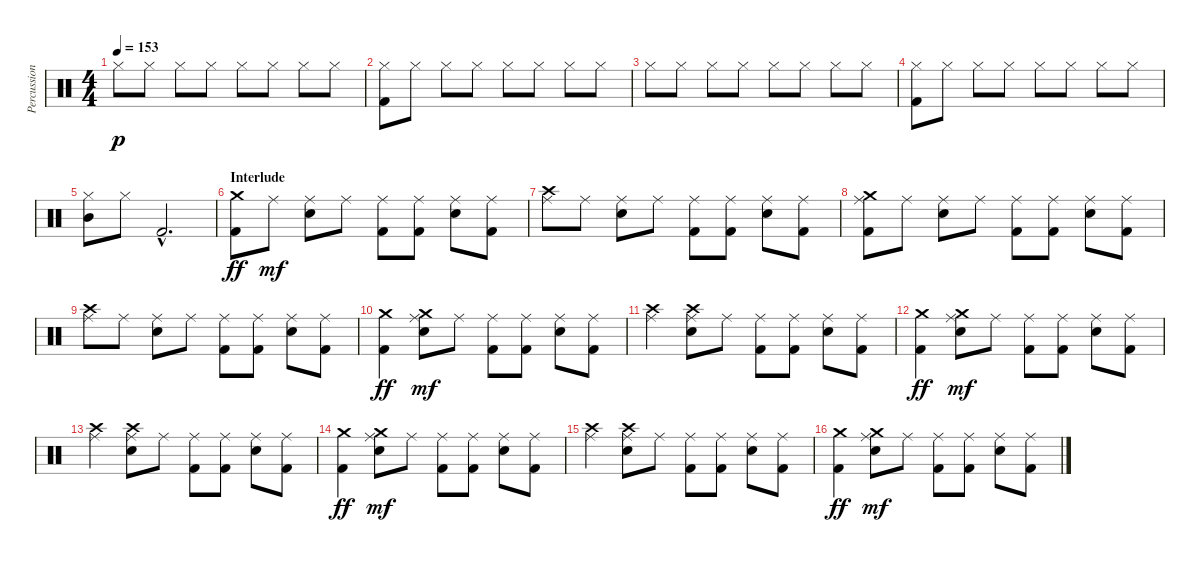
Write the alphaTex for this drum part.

\track ("Percussion" "Percussion") {instrument percussion}
\staff {score}
\articulation defaults
\ts (4 4)
\tempo 153
\clef neutral
\ks c "Hi-Hat (closed)".8{dy p} "Hi-Hat (closed)".8 "Hi-Hat (closed)".8 "Hi-Hat (closed)".8 "Hi-Hat (closed)".8 "Hi-Hat (closed)".8 "Hi-Hat (closed)".8 "Hi-Hat (closed)".8
|
("Hi-Hat (closed)" "Kick (hit) 2").8 "Hi-Hat (closed)".8 "Hi-Hat (closed)".8 "Hi-Hat (closed)".8 "Hi-Hat (closed)".8 "Hi-Hat (closed)".8 "Hi-Hat (closed)".8 "Hi-Hat (closed)".8 |
"Hi-Hat (closed)".8 "Hi-Hat (closed)".8 "Hi-Hat (closed)".8 "Hi-Hat (closed)".8 "Hi-Hat (closed)".8 "Hi-Hat (closed)".8 "Hi-Hat (closed)".8 "Hi-Hat (closed)".8 |
("Hi-Hat (closed)" "Kick (hit) 2").8 "Hi-Hat (closed)".8 "Hi-Hat (closed)".8 "Hi-Hat (closed)".8 "Hi-Hat (closed)".8 "Hi-Hat (closed)".8 "Hi-Hat (closed)".8 "Hi-Hat (closed)".8 |
("Mid Tom (hit)" "Hi-Hat (closed)").8 "Hi-Hat (closed)".8 "Kick (hit) 2"{hac}.2{d} |
\section ("" "Interlude")
("Crash medium (hit)" "Kick (hit) 2").8{dy ff} "Ride (middle)".8{dy mf} ("Ride (middle)" "Electric Snare (hit)").8 "Ride (middle)".8 ("Ride (middle)" "Kick (hit) 2").8 ("Ride (middle)" "Kick (hit) 2").8 ("Ride (middle)" "Electric Snare (hit)").8 ("Ride (middle)" "Kick (hit) 2").8 |
("Crash high (hit)" "Ride (middle)").8 "Ride (middle)".8 ("Ride (middle)" "Electric Snare (hit)").8 "Ride (middle)".8 ("Ride (middle)" "Kick (hit) 2").8 ("Ride (middle)" "Kick (hit) 2").8 ("Ride (middle)" "Electric Snare (hit)").8 ("Ride (middle)" "Kick (hit) 2").8 |
("Crash medium (hit)" "Ride (middle)" "Kick (hit) 2").8 "Ride (middle)".8 ("Ride (middle)" "Electric Snare (hit)").8 "Ride (middle)".8 ("Ride (middle)" "Kick (hit) 2").8 ("Ride (middle)" "Kick (hit) 2").8 ("Ride (middle)" "Electric Snare (hit)").8 ("Ride (middle)" "Kick (hit) 2").8 |
("Crash high (hit)" "Ride (middle)").8 "Ride (middle)".8 ("Ride (middle)" "Electric Snare (hit)").8 "Ride (middle)".8 ("Ride (middle)" "Kick (hit) 2").8 ("Ride (middle)" "Kick (hit) 2").8 ("Ride (middle)" "Electric Snare (hit)").8 ("Ride (middle)" "Kick (hit) 2").8 |
("Crash medium (hit)" "Kick (hit) 2").4{dy ff} ("Crash medium (hit)" "Ride (middle)" "Electric Snare (hit)").8{dy mf} "Ride (middle)".8 ("Ride (middle)" "Kick (hit) 2").8 ("Ride (middle)" "Kick (hit) 2").8 ("Ride (middle)" "Electric Snare (hit)").8 ("Ride (middle)" "Kick (hit) 2").8 |
("Crash high (hit)" "Ride (middle)").4 ("Crash high (hit)" "Ride (middle)" "Electric Snare (hit)").8 "Ride (middle)".8 ("Ride (middle)" "Kick (hit) 2").8 ("Ride (middle)" "Kick (hit) 2").8 ("Ride (middle)" "Electric Snare (hit)").8 ("Ride (middle)" "Kick (hit) 2").8 |
("Crash medium (hit)" "Kick (hit) 2").4{dy ff} ("Crash medium (hit)" "Ride (middle)" "Electric Snare (hit)").8{dy mf} "Ride (middle)".8 ("Ride (middle)" "Kick (hit) 2").8 ("Ride (middle)" "Kick (hit) 2").8 ("Ride (middle)" "Electric Snare (hit)").8 ("Ride (middle)" "Kick (hit) 2").8 |
("Crash high (hit)" "Ride (middle)").4 ("Crash high (hit)" "Ride (middle)" "Electric Snare (hit)").8 "Ride (middle)".8 ("Ride (middle)" "Kick (hit) 2").8 ("Ride (middle)" "Kick (hit) 2").8 ("Ride (middle)" "Electric Snare (hit)").8 ("Ride (middle)" "Kick (hit) 2").8 |
("Crash medium (hit)" "Kick (hit) 2").4{dy ff} ("Crash medium (hit)" "Ride (middle)" "Electric Snare (hit)").8{dy mf} "Ride (middle)".8 ("Ride (middle)" "Kick (hit) 2").8 ("Ride (middle)" "Kick (hit) 2").8 ("Ride (middle)" "Electric Snare (hit)").8 ("Ride (middle)" "Kick (hit) 2").8 |
("Crash high (hit)" "Ride (middle)").4 ("Crash high (hit)" "Ride (middle)" "Electric Snare (hit)").8 "Ride (middle)".8 ("Ride (middle)" "Kick (hit) 2").8 ("Ride (middle)" "Kick (hit) 2").8 ("Ride (middle)" "Electric Snare (hit)").8 ("Ride (middle)" "Kick (hit) 2").8 |
("Crash medium (hit)" "Kick (hit) 2").4{dy ff} ("Crash medium (hit)" "Ride (middle)" "Electric Snare (hit)").8{dy mf} "Ride (middle)".8 ("Ride (middle)" "Kick (hit) 2").8 ("Ride (middle)" "Kick (hit) 2").8 ("Ride (middle)" "Electric Snare (hit)").8 ("Ride (middle)" "Kick (hit) 2").8
